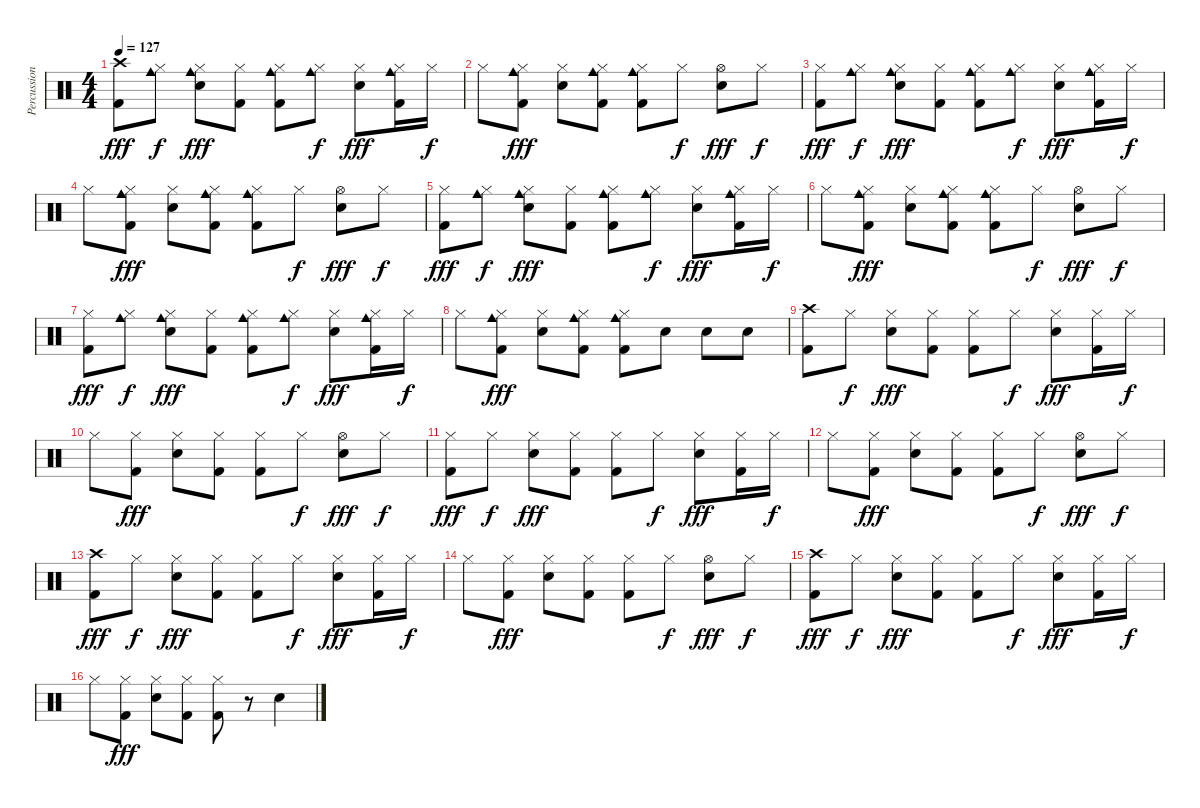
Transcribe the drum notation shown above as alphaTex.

\track ("Percussion" "Percussion") {instrument percussion}
\staff {score}
\articulation defaults
\ts (4 4)
\tempo 127
\clef neutral
\ks c
("Crash high (hit)" "Kick (hit) 2").8{dy fff} ("Hi-Hat (closed)" "Cowbell medium (hit)").8{dy f} ("Hi-Hat (closed)" "Cowbell medium (hit)" "Electric Snare (hit)").8{dy fff} ("Hi-Hat (closed)" "Kick (hit) 2").8 ("Hi-Hat (closed)" "Cowbell medium (hit)" "Kick (hit) 2").8 ("Hi-Hat (closed)" "Cowbell medium (hit)").8{dy f} ("Hi-Hat (closed)" "Electric Snare (hit)").8{dy fff} ("Hi-Hat (closed)" "Cowbell medium (hit)" "Kick (hit) 2").16 "Hi-Hat (closed)".16{dy f} |
"Hi-Hat (closed)".8 ("Hi-Hat (closed)" "Cowbell medium (hit)" "Kick (hit) 2").8{dy fff} ("Hi-Hat (closed)" "Electric Snare (hit)").8 ("Hi-Hat (closed)" "Cowbell medium (hit)" "Kick (hit) 2").8 ("Hi-Hat (closed)" "Cowbell medium (hit)" "Kick (hit) 2").8 "Hi-Hat (closed)".8{dy f} ("Hi-Hat (open)" "Electric Snare (hit)").8{dy fff} "Hi-Hat (closed)".8{dy f} |
("Hi-Hat (closed)" "Kick (hit) 2").8{dy fff} ("Hi-Hat (closed)" "Cowbell medium (hit)").8{dy f} ("Hi-Hat (closed)" "Cowbell medium (hit)" "Electric Snare (hit)").8{dy fff} ("Hi-Hat (closed)" "Kick (hit) 2").8 ("Hi-Hat (closed)" "Cowbell medium (hit)" "Kick (hit) 2").8 ("Hi-Hat (closed)" "Cowbell medium (hit)").8{dy f} ("Hi-Hat (closed)" "Electric Snare (hit)").8{dy fff} ("Hi-Hat (closed)" "Cowbell medium (hit)" "Kick (hit) 2").16 "Hi-Hat (closed)".16{dy f} |
"Hi-Hat (closed)".8 ("Hi-Hat (closed)" "Cowbell medium (hit)" "Kick (hit) 2").8{dy fff} ("Hi-Hat (closed)" "Electric Snare (hit)").8 ("Hi-Hat (closed)" "Cowbell medium (hit)" "Kick (hit) 2").8 ("Hi-Hat (closed)" "Cowbell medium (hit)" "Kick (hit) 2").8 "Hi-Hat (closed)".8{dy f} ("Hi-Hat (open)" "Electric Snare (hit)").8{dy fff} "Hi-Hat (closed)".8{dy f} |
("Hi-Hat (closed)" "Kick (hit) 2").8{dy fff} ("Hi-Hat (closed)" "Cowbell medium (hit)").8{dy f} ("Hi-Hat (closed)" "Cowbell medium (hit)" "Electric Snare (hit)").8{dy fff} ("Hi-Hat (closed)" "Kick (hit) 2").8 ("Hi-Hat (closed)" "Cowbell medium (hit)" "Kick (hit) 2").8 ("Hi-Hat (closed)" "Cowbell medium (hit)").8{dy f} ("Hi-Hat (closed)" "Electric Snare (hit)").8{dy fff} ("Hi-Hat (closed)" "Cowbell medium (hit)" "Kick (hit) 2").16 "Hi-Hat (closed)".16{dy f} |
"Hi-Hat (closed)".8 ("Hi-Hat (closed)" "Cowbell medium (hit)" "Kick (hit) 2").8{dy fff} ("Hi-Hat (closed)" "Electric Snare (hit)").8 ("Hi-Hat (closed)" "Cowbell medium (hit)" "Kick (hit) 2").8 ("Hi-Hat (closed)" "Cowbell medium (hit)" "Kick (hit) 2").8 "Hi-Hat (closed)".8{dy f} ("Hi-Hat (open)" "Electric Snare (hit)").8{dy fff} "Hi-Hat (closed)".8{dy f} |
("Hi-Hat (closed)" "Kick (hit) 2").8{dy fff} ("Hi-Hat (closed)" "Cowbell medium (hit)").8{dy f} ("Hi-Hat (closed)" "Cowbell medium (hit)" "Electric Snare (hit)").8{dy fff} ("Hi-Hat (closed)" "Kick (hit) 2").8 ("Hi-Hat (closed)" "Cowbell medium (hit)" "Kick (hit) 2").8 ("Hi-Hat (closed)" "Cowbell medium (hit)").8{dy f} ("Hi-Hat (closed)" "Electric Snare (hit)").8{dy fff} ("Hi-Hat (closed)" "Cowbell medium (hit)" "Kick (hit) 2").16 "Hi-Hat (closed)".16{dy f} |
"Hi-Hat (closed)".8 ("Hi-Hat (closed)" "Cowbell medium (hit)" "Kick (hit) 2").8{dy fff} ("Hi-Hat (closed)" "Electric Snare (hit)").8 ("Hi-Hat (closed)" "Cowbell medium (hit)" "Kick (hit) 2").8 ("Hi-Hat (closed)" "Cowbell medium (hit)" "Kick (hit) 2").8 "Electric Snare (hit)".8 "Electric Snare (hit)".8 "Electric Snare (hit)".8 |
("Crash high (hit)" "Kick (hit) 2").8 "Hi-Hat (closed)".8{dy f} ("Hi-Hat (closed)" "Electric Snare (hit)").8{dy fff} ("Hi-Hat (closed)" "Kick (hit) 2").8 ("Hi-Hat (closed)" "Kick (hit) 2").8 "Hi-Hat (closed)".8{dy f} ("Hi-Hat (closed)" "Electric Snare (hit)").8{dy fff} ("Hi-Hat (closed)" "Kick (hit) 2").16 "Hi-Hat (closed)".16{dy f} |
"Hi-Hat (closed)".8 ("Hi-Hat (closed)" "Kick (hit) 2").8{dy fff} ("Hi-Hat (closed)" "Electric Snare (hit)").8 ("Hi-Hat (closed)" "Kick (hit) 2").8 ("Hi-Hat (closed)" "Kick (hit) 2").8 "Hi-Hat (closed)".8{dy f} ("Hi-Hat (open)" "Electric Snare (hit)").8{dy fff} "Hi-Hat (closed)".8{dy f} |
("Hi-Hat (closed)" "Kick (hit) 2").8{dy fff} "Hi-Hat (closed)".8{dy f} ("Hi-Hat (closed)" "Electric Snare (hit)").8{dy fff} ("Hi-Hat (closed)" "Kick (hit) 2").8 ("Hi-Hat (closed)" "Kick (hit) 2").8 "Hi-Hat (closed)".8{dy f} ("Hi-Hat (closed)" "Electric Snare (hit)").8{dy fff} ("Hi-Hat (closed)" "Kick (hit) 2").16 "Hi-Hat (closed)".16{dy f} |
"Hi-Hat (closed)".8 ("Hi-Hat (closed)" "Kick (hit) 2").8{dy fff} ("Hi-Hat (closed)" "Electric Snare (hit)").8 ("Hi-Hat (closed)" "Kick (hit) 2").8 ("Hi-Hat (closed)" "Kick (hit) 2").8 "Hi-Hat (closed)".8{dy f} ("Hi-Hat (open)" "Electric Snare (hit)").8{dy fff} "Hi-Hat (closed)".8{dy f} |
("Crash high (hit)" "Kick (hit) 2").8{dy fff} "Hi-Hat (closed)".8{dy f} ("Hi-Hat (closed)" "Electric Snare (hit)").8{dy fff} ("Hi-Hat (closed)" "Kick (hit) 2").8 ("Hi-Hat (closed)" "Kick (hit) 2").8 "Hi-Hat (closed)".8{dy f} ("Hi-Hat (closed)" "Electric Snare (hit)").8{dy fff} ("Hi-Hat (closed)" "Kick (hit) 2").16 "Hi-Hat (closed)".16{dy f} |
"Hi-Hat (closed)".8 ("Hi-Hat (closed)" "Kick (hit) 2").8{dy fff} ("Hi-Hat (closed)" "Electric Snare (hit)").8 ("Hi-Hat (closed)" "Kick (hit) 2").8 ("Hi-Hat (closed)" "Kick (hit) 2").8 "Hi-Hat (closed)".8{dy f} ("Hi-Hat (open)" "Electric Snare (hit)").8{dy fff} "Hi-Hat (closed)".8{dy f} |
("Crash high (hit)" "Kick (hit) 2").8{dy fff} "Hi-Hat (closed)".8{dy f} ("Hi-Hat (closed)" "Electric Snare (hit)").8{dy fff} ("Hi-Hat (closed)" "Kick (hit) 2").8 ("Hi-Hat (closed)" "Kick (hit) 2").8 "Hi-Hat (closed)".8{dy f} ("Hi-Hat (closed)" "Electric Snare (hit)").8{dy fff} ("Hi-Hat (closed)" "Kick (hit) 2").16 "Hi-Hat (closed)".16{dy f} |
"Hi-Hat (closed)".8 ("Hi-Hat (closed)" "Kick (hit) 2").8{dy fff} ("Hi-Hat (closed)" "Electric Snare (hit)").8 ("Hi-Hat (closed)" "Kick (hit) 2").8 ("Hi-Hat (closed)" "Kick (hit) 2").8 r.8 "Electric Snare (hit)".4
